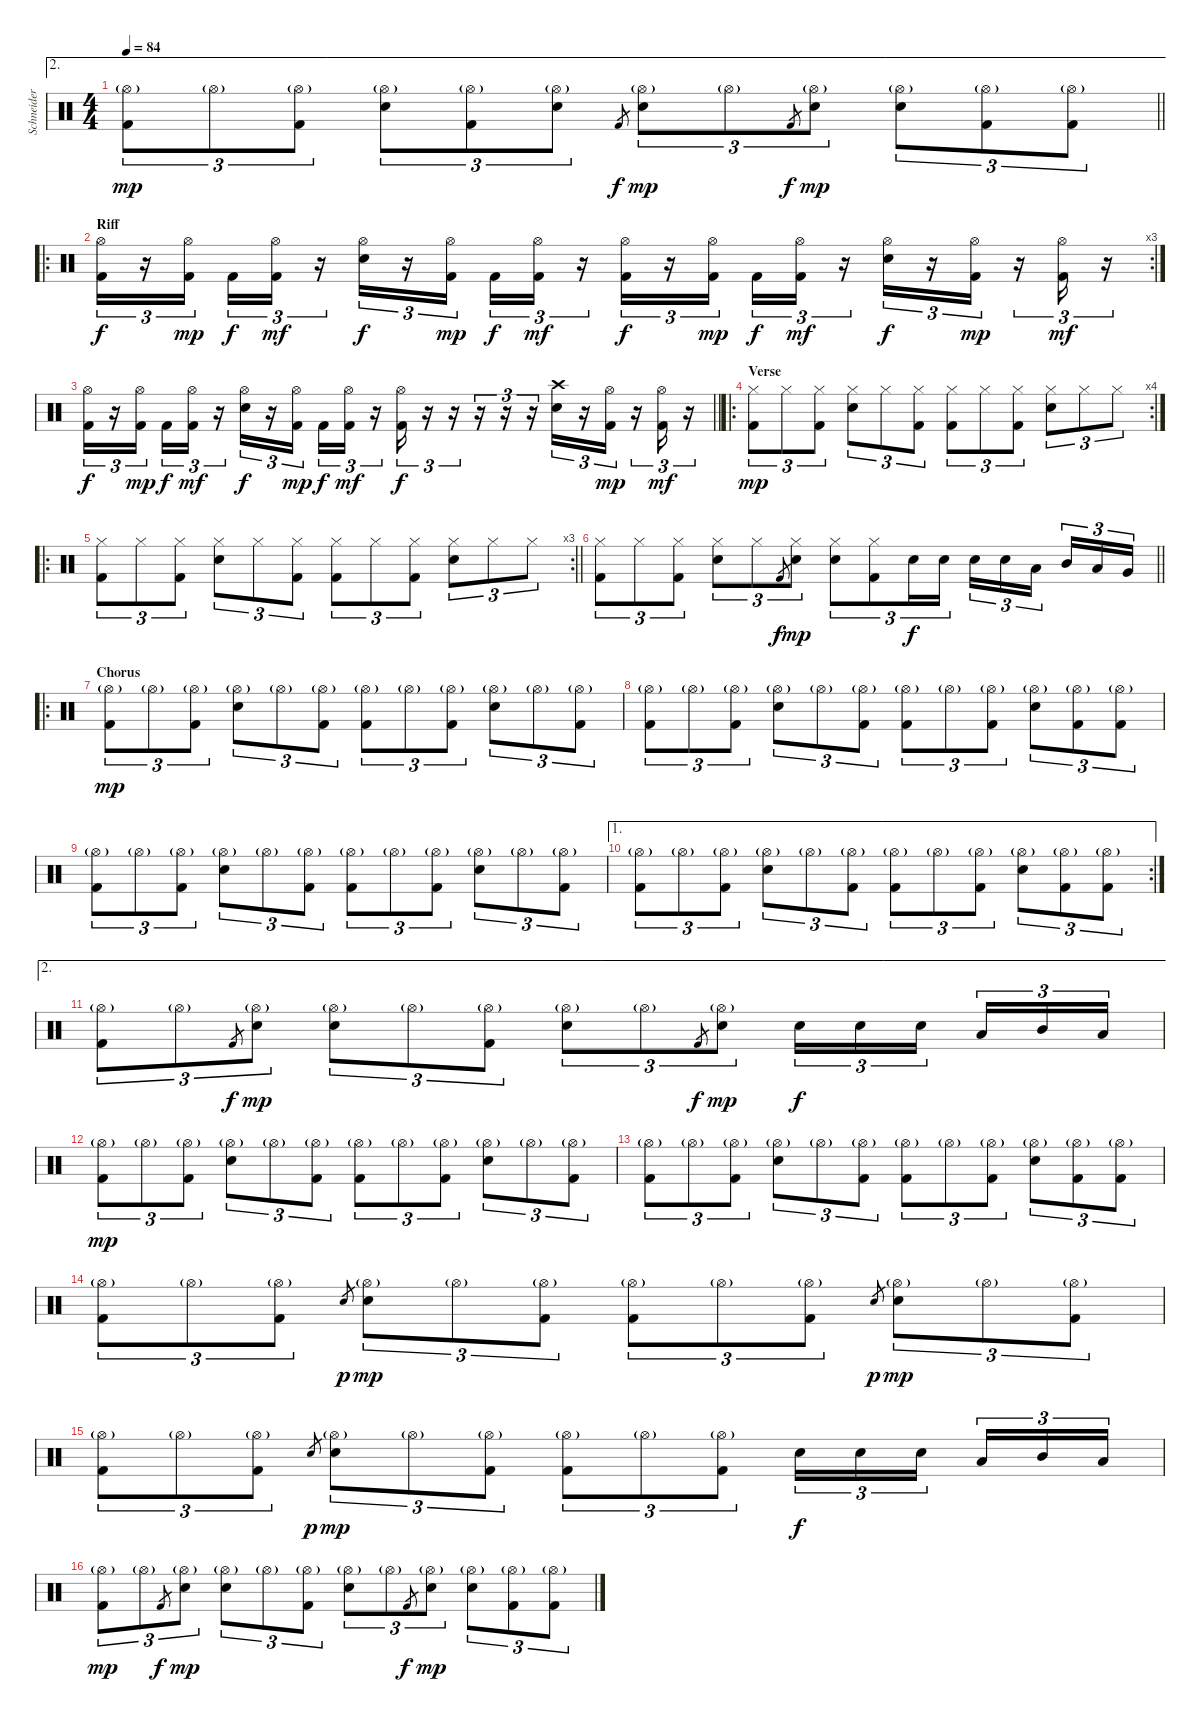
\track ("Schneider" "Schneider") {instrument percussion}
\staff {score}
\articulation defaults
\ae 2
\ts (4 4)
\tempo 84
\clef neutral
\barLineRight lightlight
\ks c
("Hi-Hat (open)"{g} "Kick (hit) 2").8{tu (3 2) dy mp} "Hi-Hat (open)"{g}.8{tu (3 2)} ("Hi-Hat (open)"{g} "Kick (hit) 2").8{tu (3 2)} ("Hi-Hat (open)"{g} "Electric Snare (hit)").8{tu (3 2)} ("Hi-Hat (open)"{g} "Kick (hit) 2").8{tu (3 2)} ("Hi-Hat (open)"{g} "Electric Snare (hit)").8{tu (3 2)} "Kick (hit) 2".8{gr dy f} ("Hi-Hat (open)"{g} "Electric Snare (hit)").8{tu (3 2) dy mp} "Hi-Hat (open)"{g}.8{tu (3 2)} "Kick (hit) 2".8{gr dy f} ("Hi-Hat (open)"{g} "Electric Snare (hit)").8{tu (3 2) dy mp} ("Hi-Hat (open)"{g} "Electric Snare (hit)").8{tu (3 2)} ("Hi-Hat (open)"{g} "Kick (hit) 2").8{tu (3 2)} ("Hi-Hat (open)"{g} "Kick (hit) 2").8{tu (3 2)} |
\ro
\rc 3
\section ("" "Riff")
("Hi-Hat (open)" "Kick (hit) 2").16{tu (3 2) dy f} r.16{tu (3 2)} ("Hi-Hat (open)" "Kick (hit) 2").16{tu (3 2) dy mp beam splitsecondary} "Kick (hit) 2".16{tu (3 2) dy f} ("Hi-Hat (open)" "Kick (hit) 2").16{tu (3 2) dy mf} r.16{tu (3 2)} ("Hi-Hat (open)" "Electric Snare (hit)").16{tu (3 2) dy f} r.16{tu (3 2)} ("Hi-Hat (open)" "Kick (hit) 2").16{tu (3 2) dy mp beam splitsecondary} "Kick (hit) 2".16{tu (3 2) dy f} ("Hi-Hat (open)" "Kick (hit) 2").16{tu (3 2) dy mf} r.16{tu (3 2)} ("Hi-Hat (open)" "Kick (hit) 2").16{tu (3 2) dy f} r.16{tu (3 2)} ("Hi-Hat (open)" "Kick (hit) 2").16{tu (3 2) dy mp beam splitsecondary} "Kick (hit) 2".16{tu (3 2) dy f} ("Hi-Hat (open)" "Kick (hit) 2").16{tu (3 2) dy mf} r.16{tu (3 2)} ("Hi-Hat (open)" "Electric Snare (hit)").16{tu (3 2) dy f} r.16{tu (3 2)} ("Hi-Hat (open)" "Kick (hit) 2").16{tu (3 2) dy mp} r.16{tu (3 2)} ("Hi-Hat (open)" "Kick (hit) 2").16{tu (3 2) dy mf} r.16{tu (3 2)} |
\barLineRight lightlight
("Hi-Hat (open)" "Kick (hit) 2").16{tu (3 2) dy f} r.16{tu (3 2)} ("Hi-Hat (open)" "Kick (hit) 2").16{tu (3 2) dy mp beam splitsecondary} "Kick (hit) 2".16{tu (3 2) dy f} ("Hi-Hat (open)" "Kick (hit) 2").16{tu (3 2) dy mf} r.16{tu (3 2)} ("Hi-Hat (open)" "Electric Snare (hit)").16{tu (3 2) dy f} r.16{tu (3 2)} ("Hi-Hat (open)" "Kick (hit) 2").16{tu (3 2) dy mp beam splitsecondary} "Kick (hit) 2".16{tu (3 2) dy f} ("Hi-Hat (open)" "Kick (hit) 2").16{tu (3 2) dy mf} r.16{tu (3 2)} ("Hi-Hat (open)" "Kick (hit) 2").16{tu (3 2) dy f} r.16{tu (3 2)} r.16{tu (3 2)} r.16{tu (3 2)} r.16{tu (3 2)} r.16{tu (3 2)} ("Crash high (hit)" "Electric Snare (hit)").16{tu (3 2)} r.16{tu (3 2)} ("Hi-Hat (open)" "Kick (hit) 2").16{tu (3 2) dy mp} r.16{tu (3 2)} ("Hi-Hat (open)" "Kick (hit) 2").16{tu (3 2) dy mf} r.16{tu (3 2)} |
\ro
\rc 4
\section ("" "Verse")
("Hi-Hat (closed)" "Kick (hit) 2").8{tu (3 2) dy mp} "Hi-Hat (closed)".8{tu (3 2)} ("Hi-Hat (closed)" "Kick (hit) 2").8{tu (3 2)} ("Hi-Hat (closed)" "Electric Snare (hit)").8{tu (3 2)} "Hi-Hat (closed)".8{tu (3 2)} ("Hi-Hat (closed)" "Kick (hit) 2").8{tu (3 2)} ("Hi-Hat (closed)" "Kick (hit) 2").8{tu (3 2)} "Hi-Hat (closed)".8{tu (3 2)} ("Hi-Hat (closed)" "Kick (hit) 2").8{tu (3 2)} ("Hi-Hat (closed)" "Electric Snare (hit)").8{tu (3 2)} "Hi-Hat (closed)".8{tu (3 2)} "Hi-Hat (closed)".8{tu (3 2)} |
\ro
\rc 3
\barLineRight lightlight
("Hi-Hat (closed)" "Kick (hit) 2").8{tu (3 2)} "Hi-Hat (closed)".8{tu (3 2)} ("Hi-Hat (closed)" "Kick (hit) 2").8{tu (3 2)} ("Hi-Hat (closed)" "Electric Snare (hit)").8{tu (3 2)} "Hi-Hat (closed)".8{tu (3 2)} ("Hi-Hat (closed)" "Kick (hit) 2").8{tu (3 2)} ("Hi-Hat (closed)" "Kick (hit) 2").8{tu (3 2)} "Hi-Hat (closed)".8{tu (3 2)} ("Hi-Hat (closed)" "Kick (hit) 2").8{tu (3 2)} ("Hi-Hat (closed)" "Electric Snare (hit)").8{tu (3 2)} "Hi-Hat (closed)".8{tu (3 2)} "Hi-Hat (closed)".8{tu (3 2)} |
\barLineRight lightlight
("Hi-Hat (closed)" "Kick (hit) 2").8{tu (3 2)} "Hi-Hat (closed)".8{tu (3 2)} ("Hi-Hat (closed)" "Kick (hit) 2").8{tu (3 2)} ("Hi-Hat (closed)" "Electric Snare (hit)").8{tu (3 2)} "Hi-Hat (closed)".8{tu (3 2)} "Kick (hit) 2".8{gr dy f} ("Hi-Hat (closed)" "Electric Snare (hit)").8{tu (3 2) dy mp} ("Hi-Hat (closed)" "Electric Snare (hit)").8{tu (3 2)} ("Hi-Hat (closed)" "Kick (hit) 2").8{tu (3 2)} "Electric Snare (hit)".16{tu (3 2) dy f} "Electric Snare (hit)".16{tu (3 2)} "Electric Snare (hit)".16{tu (3 2)} "Electric Snare (hit)".16{tu (3 2)} "Low Tom (hit)".16{tu (3 2) beam splitsecondary} "Mid Tom (hit)".16{tu (3 2)} "Low Tom (hit)".16{tu (3 2)} "Very Low Tom (hit)".16{tu (3 2)} |
\ro
\section ("" "Chorus")
("Hi-Hat (open)"{g} "Kick (hit) 2").8{tu (3 2) dy mp} "Hi-Hat (open)"{g}.8{tu (3 2)} ("Hi-Hat (open)"{g} "Kick (hit) 2").8{tu (3 2)} ("Hi-Hat (open)"{g} "Electric Snare (hit)").8{tu (3 2)} "Hi-Hat (open)"{g}.8{tu (3 2)} ("Hi-Hat (open)"{g} "Kick (hit) 2").8{tu (3 2)} ("Hi-Hat (open)"{g} "Kick (hit) 2").8{tu (3 2)} "Hi-Hat (open)"{g}.8{tu (3 2)} ("Hi-Hat (open)"{g} "Kick (hit) 2").8{tu (3 2)} ("Hi-Hat (open)"{g} "Electric Snare (hit)").8{tu (3 2)} "Hi-Hat (open)"{g}.8{tu (3 2)} ("Hi-Hat (open)"{g} "Kick (hit) 2").8{tu (3 2)} |
("Hi-Hat (open)"{g} "Kick (hit) 2").8{tu (3 2)} "Hi-Hat (open)"{g}.8{tu (3 2)} ("Hi-Hat (open)"{g} "Kick (hit) 2").8{tu (3 2)} ("Hi-Hat (open)"{g} "Electric Snare (hit)").8{tu (3 2)} "Hi-Hat (open)"{g}.8{tu (3 2)} ("Hi-Hat (open)"{g} "Kick (hit) 2").8{tu (3 2)} ("Hi-Hat (open)"{g} "Kick (hit) 2").8{tu (3 2)} "Hi-Hat (open)"{g}.8{tu (3 2)} ("Hi-Hat (open)"{g} "Kick (hit) 2").8{tu (3 2)} ("Hi-Hat (open)"{g} "Electric Snare (hit)").8{tu (3 2)} ("Hi-Hat (open)"{g} "Kick (hit) 2").8{tu (3 2)} ("Hi-Hat (open)"{g} "Kick (hit) 2").8{tu (3 2)} |
("Hi-Hat (open)"{g} "Kick (hit) 2").8{tu (3 2)} "Hi-Hat (open)"{g}.8{tu (3 2)} ("Hi-Hat (open)"{g} "Kick (hit) 2").8{tu (3 2)} ("Hi-Hat (open)"{g} "Electric Snare (hit)").8{tu (3 2)} "Hi-Hat (open)"{g}.8{tu (3 2)} ("Hi-Hat (open)"{g} "Kick (hit) 2").8{tu (3 2)} ("Hi-Hat (open)"{g} "Kick (hit) 2").8{tu (3 2)} "Hi-Hat (open)"{g}.8{tu (3 2)} ("Hi-Hat (open)"{g} "Kick (hit) 2").8{tu (3 2)} ("Hi-Hat (open)"{g} "Electric Snare (hit)").8{tu (3 2)} "Hi-Hat (open)"{g}.8{tu (3 2)} ("Hi-Hat (open)"{g} "Kick (hit) 2").8{tu (3 2)} |
\ae 1
\rc 2
("Hi-Hat (open)"{g} "Kick (hit) 2").8{tu (3 2)} "Hi-Hat (open)"{g}.8{tu (3 2)} ("Hi-Hat (open)"{g} "Kick (hit) 2").8{tu (3 2)} ("Hi-Hat (open)"{g} "Electric Snare (hit)").8{tu (3 2)} "Hi-Hat (open)"{g}.8{tu (3 2)} ("Hi-Hat (open)"{g} "Kick (hit) 2").8{tu (3 2)} ("Hi-Hat (open)"{g} "Kick (hit) 2").8{tu (3 2)} "Hi-Hat (open)"{g}.8{tu (3 2)} ("Hi-Hat (open)"{g} "Kick (hit) 2").8{tu (3 2)} ("Hi-Hat (open)"{g} "Electric Snare (hit)").8{tu (3 2)} ("Hi-Hat (open)"{g} "Kick (hit) 2").8{tu (3 2)} ("Hi-Hat (open)"{g} "Kick (hit) 2").8{tu (3 2)} |
\ae 2
("Hi-Hat (open)"{g} "Kick (hit) 2").8{tu (3 2)} "Hi-Hat (open)"{g}.8{tu (3 2)} "Kick (hit) 2".8{gr dy f} ("Hi-Hat (open)"{g} "Electric Snare (hit)").8{tu (3 2) dy mp} ("Hi-Hat (open)"{g} "Electric Snare (hit)").8{tu (3 2)} "Hi-Hat (open)"{g}.8{tu (3 2)} ("Hi-Hat (open)"{g} "Kick (hit) 2").8{tu (3 2)} ("Hi-Hat (open)"{g} "Electric Snare (hit)").8{tu (3 2)} "Hi-Hat (open)"{g}.8{tu (3 2)} "Kick (hit) 2".8{gr dy f} ("Hi-Hat (open)"{g} "Electric Snare (hit)").8{tu (3 2) dy mp} "Electric Snare (hit)".16{tu (3 2) dy f} "Electric Snare (hit)".16{tu (3 2)} "Electric Snare (hit)".16{tu (3 2) beam splitsecondary} "Low Tom (hit)".16{tu (3 2)} "Mid Tom (hit)".16{tu (3 2)} "Low Tom (hit)".16{tu (3 2)} |
("Hi-Hat (open)"{g} "Kick (hit) 2").8{tu (3 2) dy mp} "Hi-Hat (open)"{g}.8{tu (3 2)} ("Hi-Hat (open)"{g} "Kick (hit) 2").8{tu (3 2)} ("Hi-Hat (open)"{g} "Electric Snare (hit)").8{tu (3 2)} "Hi-Hat (open)"{g}.8{tu (3 2)} ("Hi-Hat (open)"{g} "Kick (hit) 2").8{tu (3 2)} ("Hi-Hat (open)"{g} "Kick (hit) 2").8{tu (3 2)} "Hi-Hat (open)"{g}.8{tu (3 2)} ("Hi-Hat (open)"{g} "Kick (hit) 2").8{tu (3 2)} ("Hi-Hat (open)"{g} "Electric Snare (hit)").8{tu (3 2)} "Hi-Hat (open)"{g}.8{tu (3 2)} ("Hi-Hat (open)"{g} "Kick (hit) 2").8{tu (3 2)} |
("Hi-Hat (open)"{g} "Kick (hit) 2").8{tu (3 2)} "Hi-Hat (open)"{g}.8{tu (3 2)} ("Hi-Hat (open)"{g} "Kick (hit) 2").8{tu (3 2)} ("Hi-Hat (open)"{g} "Electric Snare (hit)").8{tu (3 2)} "Hi-Hat (open)"{g}.8{tu (3 2)} ("Hi-Hat (open)"{g} "Kick (hit) 2").8{tu (3 2)} ("Hi-Hat (open)"{g} "Kick (hit) 2").8{tu (3 2)} "Hi-Hat (open)"{g}.8{tu (3 2)} ("Hi-Hat (open)"{g} "Kick (hit) 2").8{tu (3 2)} ("Hi-Hat (open)"{g} "Electric Snare (hit)").8{tu (3 2)} ("Hi-Hat (open)"{g} "Kick (hit) 2").8{tu (3 2)} ("Hi-Hat (open)"{g} "Kick (hit) 2").8{tu (3 2)} |
("Hi-Hat (open)"{g} "Kick (hit) 2").8{tu (3 2)} "Hi-Hat (open)"{g}.8{tu (3 2)} ("Hi-Hat (open)"{g} "Kick (hit) 2").8{tu (3 2)} "Electric Snare (hit)"{h}.8{gr dy p} ("Hi-Hat (open)"{g} "Electric Snare (hit)").8{tu (3 2) dy mp} "Hi-Hat (open)"{g}.8{tu (3 2)} ("Hi-Hat (open)"{g} "Kick (hit) 2").8{tu (3 2)} ("Hi-Hat (open)"{g} "Kick (hit) 2").8{tu (3 2)} "Hi-Hat (open)"{g}.8{tu (3 2)} ("Hi-Hat (open)"{g} "Kick (hit) 2").8{tu (3 2)} "Electric Snare (hit)"{h}.8{gr dy p} ("Hi-Hat (open)"{g} "Electric Snare (hit)").8{tu (3 2) dy mp} "Hi-Hat (open)"{g}.8{tu (3 2)} ("Hi-Hat (open)"{g} "Kick (hit) 2").8{tu (3 2)} |
("Hi-Hat (open)"{g} "Kick (hit) 2").8{tu (3 2)} "Hi-Hat (open)"{g}.8{tu (3 2)} ("Hi-Hat (open)"{g} "Kick (hit) 2").8{tu (3 2)} "Electric Snare (hit)"{h}.8{gr dy p} ("Hi-Hat (open)"{g} "Electric Snare (hit)").8{tu (3 2) dy mp} "Hi-Hat (open)"{g}.8{tu (3 2)} ("Hi-Hat (open)"{g} "Kick (hit) 2").8{tu (3 2)} ("Hi-Hat (open)"{g} "Kick (hit) 2").8{tu (3 2)} "Hi-Hat (open)"{g}.8{tu (3 2)} ("Hi-Hat (open)"{g} "Kick (hit) 2").8{tu (3 2)} "Electric Snare (hit)".16{tu (3 2) dy f} "Electric Snare (hit)".16{tu (3 2)} "Electric Snare (hit)".16{tu (3 2) beam splitsecondary} "Low Tom (hit)".16{tu (3 2)} "Mid Tom (hit)".16{tu (3 2)} "Low Tom (hit)".16{tu (3 2)} |
("Hi-Hat (open)"{g} "Kick (hit) 2").8{tu (3 2) dy mp} "Hi-Hat (open)"{g}.8{tu (3 2)} "Kick (hit) 2".8{gr dy f} ("Hi-Hat (open)"{g} "Electric Snare (hit)").8{tu (3 2) dy mp} ("Hi-Hat (open)"{g} "Electric Snare (hit)").8{tu (3 2)} "Hi-Hat (open)"{g}.8{tu (3 2)} ("Hi-Hat (open)"{g} "Kick (hit) 2").8{tu (3 2)} ("Hi-Hat (open)"{g} "Electric Snare (hit)").8{tu (3 2)} "Hi-Hat (open)"{g}.8{tu (3 2)} "Kick (hit) 2".8{gr dy f} ("Hi-Hat (open)"{g} "Electric Snare (hit)").8{tu (3 2) dy mp} ("Hi-Hat (open)"{g} "Electric Snare (hit)").8{tu (3 2)} ("Hi-Hat (open)"{g} "Kick (hit) 2").8{tu (3 2)} ("Hi-Hat (open)"{g} "Kick (hit) 2").8{tu (3 2)}
